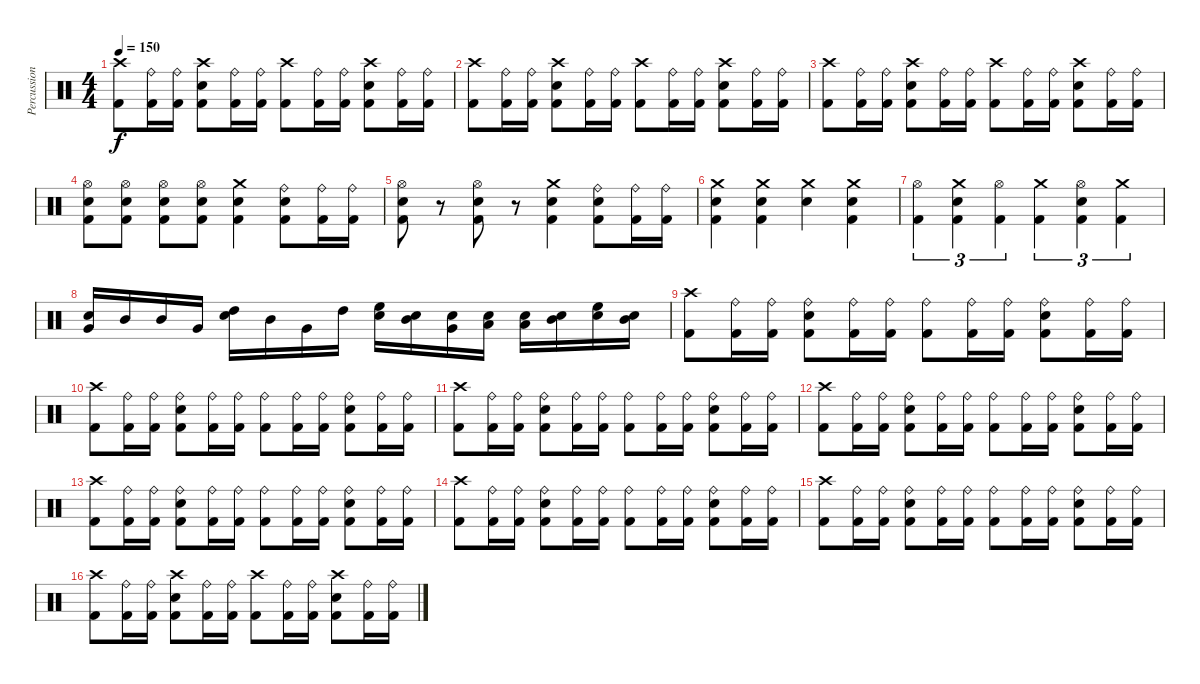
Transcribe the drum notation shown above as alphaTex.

\track ("Percussion" "Percussion") {instrument percussion}
\staff {score}
\articulation defaults
\ts (4 4)
\tempo 150
\clef neutral
\ks c
("Crash high (hit)" "Kick (hit) 2").8{dy f} ("Ride (bell)" "Kick (hit) 2").16 ("Ride (bell)" "Kick (hit) 2").16 ("Crash high (hit)" "Electric Snare (hit)" "Kick (hit) 2").8 ("Ride (bell)" "Kick (hit) 2").16 ("Ride (bell)" "Kick (hit) 2").16 ("Crash high (hit)" "Kick (hit) 2").8 ("Ride (bell)" "Kick (hit) 2").16 ("Ride (bell)" "Kick (hit) 2").16 ("Crash high (hit)" "Electric Snare (hit)" "Kick (hit) 2").8 ("Ride (bell)" "Kick (hit) 2").16 ("Ride (bell)" "Kick (hit) 2").16 |
("Crash high (hit)" "Kick (hit) 2").8 ("Ride (bell)" "Kick (hit) 2").16 ("Ride (bell)" "Kick (hit) 2").16 ("Crash high (hit)" "Electric Snare (hit)" "Kick (hit) 2").8 ("Ride (bell)" "Kick (hit) 2").16 ("Ride (bell)" "Kick (hit) 2").16 ("Crash high (hit)" "Kick (hit) 2").8 ("Ride (bell)" "Kick (hit) 2").16 ("Ride (bell)" "Kick (hit) 2").16 ("Crash high (hit)" "Electric Snare (hit)" "Kick (hit) 2").8 ("Ride (bell)" "Kick (hit) 2").16 ("Ride (bell)" "Kick (hit) 2").16 |
("Crash high (hit)" "Kick (hit) 2").8 ("Ride (bell)" "Kick (hit) 2").16 ("Ride (bell)" "Kick (hit) 2").16 ("Crash high (hit)" "Electric Snare (hit)" "Kick (hit) 2").8 ("Ride (bell)" "Kick (hit) 2").16 ("Ride (bell)" "Kick (hit) 2").16 ("Crash high (hit)" "Kick (hit) 2").8 ("Ride (bell)" "Kick (hit) 2").16 ("Ride (bell)" "Kick (hit) 2").16 ("Crash high (hit)" "Electric Snare (hit)" "Kick (hit) 2").8 ("Ride (bell)" "Kick (hit) 2").16 ("Ride (bell)" "Kick (hit) 2").16 |
("Hi-Hat (open)" "Electric Snare (hit)" "Kick (hit) 2").8 ("Hi-Hat (open)" "Electric Snare (hit)" "Kick (hit) 2").8 ("Hi-Hat (open)" "Electric Snare (hit)" "Kick (hit) 2").8 ("Hi-Hat (open)" "Electric Snare (hit)" "Kick (hit) 2").8 ("Crash medium (hit)" "Electric Snare (hit)" "Kick (hit) 2").4 ("Ride (bell)" "Electric Snare (hit)" "Kick (hit) 2").8 ("Ride (bell)" "Kick (hit) 2").16 ("Ride (bell)" "Kick (hit) 2").16 |
("Hi-Hat (open)" "Electric Snare (hit)" "Kick (hit) 2").8 r.8 ("Hi-Hat (open)" "Electric Snare (hit)" "Kick (hit) 2").8 r.8 ("Crash medium (hit)" "Electric Snare (hit)" "Kick (hit) 2").4 ("Ride (bell)" "Electric Snare (hit)" "Kick (hit) 2").8 ("Ride (bell)" "Kick (hit) 2").16 ("Ride (bell)" "Kick (hit) 2").16 |
("Crash medium (hit)" "Electric Snare (hit)" "Kick (hit) 2").4 ("Crash medium (hit)" "Electric Snare (hit)" "Kick (hit) 2").4 ("Crash medium (hit)" "Electric Snare (hit)").4 ("Crash medium (hit)" "Electric Snare (hit)" "Kick (hit) 2").4 |
("Hi-Hat (open)" "Kick (hit) 2").4{tu (3 2)} ("Crash medium (hit)" "Electric Snare (hit)" "Kick (hit) 2").4{tu (3 2)} ("Hi-Hat (open)" "Kick (hit) 2").4{tu (3 2)} ("Crash medium (hit)" "Kick (hit) 2").4{tu (3 2)} ("Hi-Hat (open)" "Electric Snare (hit)" "Kick (hit) 2").4{tu (3 2)} ("Crash medium (hit)" "Kick (hit) 2").4{tu (3 2)} |
("Electric Snare (hit)" "Very Low Tom (hit)").16 "Mid Tom (hit)".16 "Mid Tom (hit)".16 "Very Low Tom (hit)".16 ("Electric Snare (hit)" "High Tom (hit)").16 "Mid Tom (hit)".16 "Very Low Tom (hit)".16 "High Tom (hit)".16 ("Electric Snare (hit)" "High Floor Tom (hit)").16 ("Electric Snare (hit)" "Mid Tom (hit)").16 ("Electric Snare (hit)" "Very Low Tom (hit)").16 ("Electric Snare (hit)" "Low Tom (hit)").16 ("Electric Snare (hit)" "Low Tom (hit)").16 ("Electric Snare (hit)" "Mid Tom (hit)").16 ("Electric Snare (hit)" "High Floor Tom (hit)").16 ("Electric Snare (hit)" "Mid Tom (hit)").16 |
("Crash high (hit)" "Kick (hit) 2").8 ("Ride (bell)" "Kick (hit) 2").16 ("Ride (bell)" "Kick (hit) 2").16 ("Ride (bell)" "Snare (hit) 2" "Kick (hit) 2").8 ("Ride (bell)" "Kick (hit) 2").16 ("Ride (bell)" "Kick (hit) 2").16 ("Ride (bell)" "Kick (hit) 2").8 ("Ride (bell)" "Kick (hit) 2").16 ("Ride (bell)" "Kick (hit) 2").16 ("Ride (bell)" "Snare (hit) 2" "Kick (hit) 2").8 ("Ride (bell)" "Kick (hit) 2").16 ("Ride (bell)" "Kick (hit) 2").16 |
("Crash high (hit)" "Kick (hit) 2").8 ("Ride (bell)" "Kick (hit) 2").16 ("Ride (bell)" "Kick (hit) 2").16 ("Ride (bell)" "Snare (hit) 2" "Kick (hit) 2").8 ("Ride (bell)" "Kick (hit) 2").16 ("Ride (bell)" "Kick (hit) 2").16 ("Ride (bell)" "Kick (hit) 2").8 ("Ride (bell)" "Kick (hit) 2").16 ("Ride (bell)" "Kick (hit) 2").16 ("Ride (bell)" "Snare (hit) 2" "Kick (hit) 2").8 ("Ride (bell)" "Kick (hit) 2").16 ("Ride (bell)" "Kick (hit) 2").16 |
("Crash high (hit)" "Kick (hit) 2").8 ("Ride (bell)" "Kick (hit) 2").16 ("Ride (bell)" "Kick (hit) 2").16 ("Ride (bell)" "Snare (hit) 2" "Kick (hit) 2").8 ("Ride (bell)" "Kick (hit) 2").16 ("Ride (bell)" "Kick (hit) 2").16 ("Ride (bell)" "Kick (hit) 2").8 ("Ride (bell)" "Kick (hit) 2").16 ("Ride (bell)" "Kick (hit) 2").16 ("Ride (bell)" "Snare (hit) 2" "Kick (hit) 2").8 ("Ride (bell)" "Kick (hit) 2").16 ("Ride (bell)" "Kick (hit) 2").16 |
("Crash high (hit)" "Kick (hit) 2").8 ("Ride (bell)" "Kick (hit) 2").16 ("Ride (bell)" "Kick (hit) 2").16 ("Ride (bell)" "Snare (hit) 2" "Kick (hit) 2").8 ("Ride (bell)" "Kick (hit) 2").16 ("Ride (bell)" "Kick (hit) 2").16 ("Ride (bell)" "Kick (hit) 2").8 ("Ride (bell)" "Kick (hit) 2").16 ("Ride (bell)" "Kick (hit) 2").16 ("Ride (bell)" "Snare (hit) 2" "Kick (hit) 2").8 ("Ride (bell)" "Kick (hit) 2").16 ("Ride (bell)" "Kick (hit) 2").16 |
("Crash high (hit)" "Kick (hit) 2").8 ("Ride (bell)" "Kick (hit) 2").16 ("Ride (bell)" "Kick (hit) 2").16 ("Ride (bell)" "Snare (hit) 2" "Kick (hit) 2").8 ("Ride (bell)" "Kick (hit) 2").16 ("Ride (bell)" "Kick (hit) 2").16 ("Ride (bell)" "Kick (hit) 2").8 ("Ride (bell)" "Kick (hit) 2").16 ("Ride (bell)" "Kick (hit) 2").16 ("Ride (bell)" "Snare (hit) 2" "Kick (hit) 2").8 ("Ride (bell)" "Kick (hit) 2").16 ("Ride (bell)" "Kick (hit) 2").16 |
("Crash high (hit)" "Kick (hit) 2").8 ("Ride (bell)" "Kick (hit) 2").16 ("Ride (bell)" "Kick (hit) 2").16 ("Ride (bell)" "Snare (hit) 2" "Kick (hit) 2").8 ("Ride (bell)" "Kick (hit) 2").16 ("Ride (bell)" "Kick (hit) 2").16 ("Ride (bell)" "Kick (hit) 2").8 ("Ride (bell)" "Kick (hit) 2").16 ("Ride (bell)" "Kick (hit) 2").16 ("Ride (bell)" "Snare (hit) 2" "Kick (hit) 2").8 ("Ride (bell)" "Kick (hit) 2").16 ("Ride (bell)" "Kick (hit) 2").16 |
("Crash high (hit)" "Kick (hit) 2").8 ("Ride (bell)" "Kick (hit) 2").16 ("Ride (bell)" "Kick (hit) 2").16 ("Ride (bell)" "Snare (hit) 2" "Kick (hit) 2").8 ("Ride (bell)" "Kick (hit) 2").16 ("Ride (bell)" "Kick (hit) 2").16 ("Ride (bell)" "Kick (hit) 2").8 ("Ride (bell)" "Kick (hit) 2").16 ("Ride (bell)" "Kick (hit) 2").16 ("Ride (bell)" "Snare (hit) 2" "Kick (hit) 2").8 ("Ride (bell)" "Kick (hit) 2").16 ("Ride (bell)" "Kick (hit) 2").16 |
("Crash high (hit)" "Kick (hit) 2").8 ("Ride (bell)" "Kick (hit) 2").16 ("Ride (bell)" "Kick (hit) 2").16 ("Crash high (hit)" "Snare (hit) 2" "Kick (hit) 2").8 ("Ride (bell)" "Kick (hit) 2").16 ("Ride (bell)" "Kick (hit) 2").16 ("Crash high (hit)" "Kick (hit) 2").8 ("Ride (bell)" "Kick (hit) 2").16 ("Ride (bell)" "Kick (hit) 2").16 ("Crash high (hit)" "Snare (hit) 2" "Kick (hit) 2").8 ("Ride (bell)" "Kick (hit) 2").16 ("Ride (bell)" "Kick (hit) 2").16
